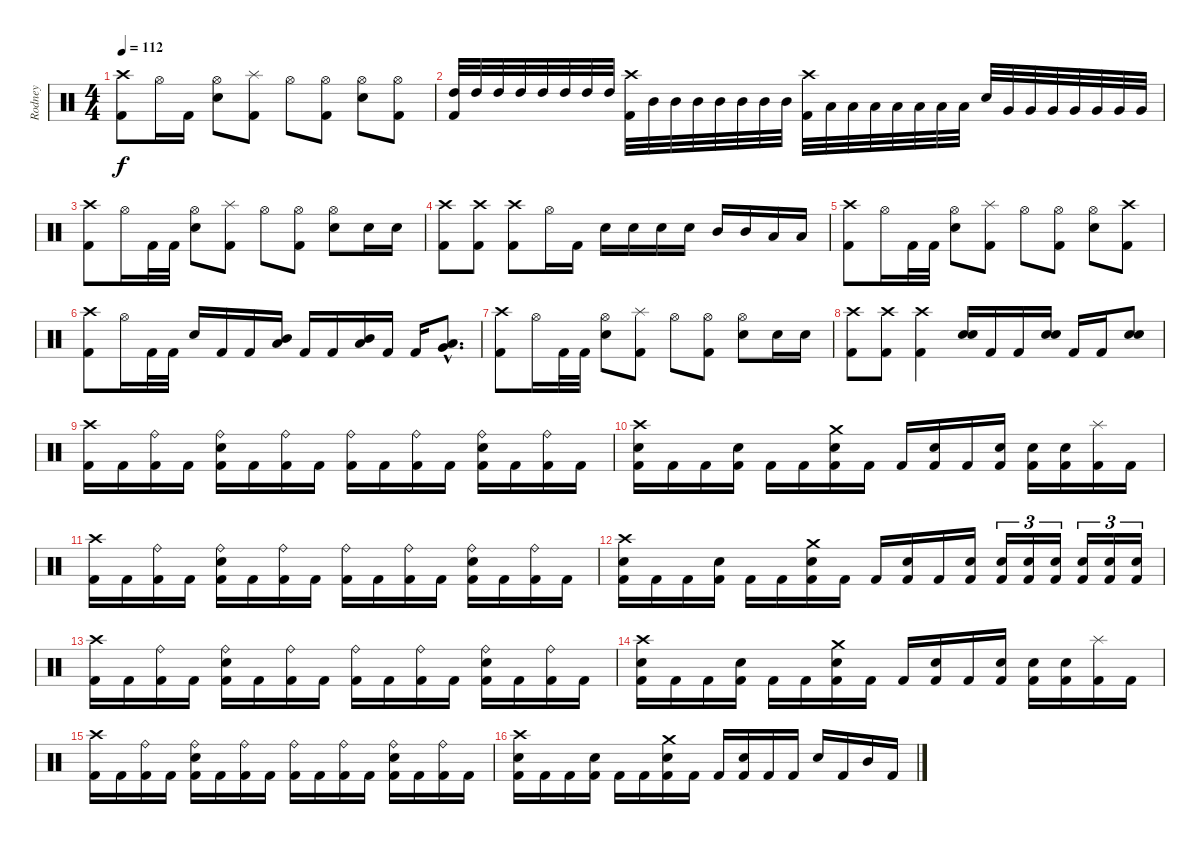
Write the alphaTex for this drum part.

\track ("Rodney" "Rodney") {instrument percussion}
\staff {score}
\articulation defaults
\ts (4 4)
\tempo 112
\clef neutral
\ks c
("Crash high (hit)" "Kick (hit) 2").8{dy f} "Hi-Hat (open)".16 "Kick (hit) 2".16 ("Hi-Hat (open)" "Snare (hit) 2").8 ("Splash (hit)" "Kick (hit) 2").8 "Hi-Hat (open)".8 ("Hi-Hat (open)" "Kick (hit) 2").8 ("Hi-Hat (open)" "Snare (hit) 2").8 ("Hi-Hat (open)" "Kick (hit) 2").8 |
("High Tom (hit)" "Kick (hit) 2").32 "High Tom (hit)".32 "High Tom (hit)".32 "High Tom (hit)".32 "High Tom (hit)".32 "High Tom (hit)".32 "High Tom (hit)".32 "High Tom (hit)".32 ("Crash high (hit)" "Kick (hit) 2").32 "Mid Tom (hit)".32 "Mid Tom (hit)".32 "Mid Tom (hit)".32 "Mid Tom (hit)".32 "Mid Tom (hit)".32 "Mid Tom (hit)".32 "Mid Tom (hit)".32 ("Crash high (hit)" "Kick (hit) 2").32 "Low Tom (hit)".32 "Low Tom (hit)".32 "Low Tom (hit)".32 "Low Tom (hit)".32 "Low Tom (hit)".32 "Low Tom (hit)".32 "Low Tom (hit)".32 "Snare (hit) 2".32 "Very Low Tom (hit)".32 "Very Low Tom (hit)".32 "Very Low Tom (hit)".32 "Very Low Tom (hit)".32 "Very Low Tom (hit)".32 "Very Low Tom (hit)".32 "Very Low Tom (hit)".32 |
("Crash high (hit)" "Kick (hit) 2").8 "Hi-Hat (open)".16 "Kick (hit) 2".32 "Kick (hit) 2".32 ("Hi-Hat (open)" "Snare (hit) 2").8 ("Splash (hit)" "Kick (hit) 2").8 "Hi-Hat (open)".8 ("Hi-Hat (open)" "Kick (hit) 2").8 ("Hi-Hat (open)" "Snare (hit) 2").8 "Snare (hit) 2".16 "Snare (hit) 2".16 |
("Crash high (hit)" "Kick (hit) 2").8 ("Crash high (hit)" "Kick (hit) 2").8 ("Crash high (hit)" "Kick (hit) 2").8 "Hi-Hat (open)".16 "Kick (hit) 2".16 "Snare (hit) 2".16 "Snare (hit) 2".16 "Snare (hit) 2".16 "Snare (hit) 2".16 "Mid Tom (hit)".16 "Mid Tom (hit)".16 "Low Tom (hit)".16 "Low Tom (hit)".16 |
("Crash high (hit)" "Kick (hit) 2").8 "Hi-Hat (open)".16 "Kick (hit) 2".32 "Kick (hit) 2".32 ("Hi-Hat (open)" "Snare (hit) 2").8 ("Splash (hit)" "Kick (hit) 2").8 "Hi-Hat (open)".8 ("Hi-Hat (open)" "Kick (hit) 2").8 ("Hi-Hat (open)" "Snare (hit) 2").8 ("Crash high (hit)" "Kick (hit) 2").8 |
("Crash high (hit)" "Kick (hit) 2").8 "Hi-Hat (open)".16 "Kick (hit) 2".32 "Kick (hit) 2".32 "Snare (hit) 2".16 "Kick (hit) 2".16 "Kick (hit) 2".16 ("Mid Tom (hit)" "Low Tom (hit)").16 "Kick (hit) 2".16 "Kick (hit) 2".16 ("Mid Tom (hit)" "Low Tom (hit)").16 "Kick (hit) 2".16 "Kick (hit) 2".16 ("Low Tom (hit)"{hac} "Very Low Tom (hit)"{hac}).8{d} |
("Crash high (hit)" "Kick (hit) 2").8 "Hi-Hat (open)".16 "Kick (hit) 2".32 "Kick (hit) 2".32 ("Hi-Hat (open)" "Snare (hit) 2").8 ("Splash (hit)" "Kick (hit) 2").8 "Hi-Hat (open)".8 ("Hi-Hat (open)" "Kick (hit) 2").8 ("Hi-Hat (open)" "Snare (hit) 2").8 "Snare (hit) 2".16 "Snare (hit) 2".16 |
("Crash high (hit)" "Kick (hit) 2").8 ("Crash high (hit)" "Kick (hit) 2").8 ("Crash high (hit)" "Kick (hit) 2").4 ("Snare (hit) 2" "Snare (hit) 2").16 "Kick (hit) 2".16 "Kick (hit) 2".16 ("Snare (hit) 2" "Snare (hit) 2").16 "Kick (hit) 2".16 "Kick (hit) 2".16 ("Snare (hit) 2" "Snare (hit) 2").8 |
("Crash high (hit)" "Kick (hit) 2").16 "Kick (hit) 2".16 ("Ride (bell)" "Kick (hit) 2").16 "Kick (hit) 2".16 ("Ride (bell)" "Snare (hit) 2" "Kick (hit) 2").16 "Kick (hit) 2".16 ("Ride (bell)" "Kick (hit) 2").16 "Kick (hit) 2".16 ("Ride (bell)" "Kick (hit) 2").16 "Kick (hit) 2".16 ("Ride (bell)" "Kick (hit) 2").16 "Kick (hit) 2".16 ("Ride (bell)" "Snare (hit) 2" "Kick (hit) 2").16 "Kick (hit) 2".16 ("Ride (bell)" "Kick (hit) 2").16 "Kick (hit) 2".16 |
("Crash high (hit)" "Snare (hit) 2" "Kick (hit) 2").16 "Kick (hit) 2".16 "Kick (hit) 2".16 ("Snare (hit) 2" "Kick (hit) 2").16 "Kick (hit) 2".16 "Kick (hit) 2".16 ("Crash medium (hit)" "Snare (hit) 2" "Kick (hit) 2").16 "Kick (hit) 2".16 "Kick (hit) 2".16 ("Snare (hit) 2" "Kick (hit) 2").16 "Kick (hit) 2".16 ("Snare (hit) 2" "Kick (hit) 2").16 ("Snare (hit) 2" "Kick (hit) 2").16 ("Snare (hit) 2" "Kick (hit) 2").16 ("Splash (hit)" "Kick (hit) 2").16 "Kick (hit) 2".16 |
("Crash high (hit)" "Kick (hit) 2").16 "Kick (hit) 2".16 ("Ride (bell)" "Kick (hit) 2").16 "Kick (hit) 2".16 ("Ride (bell)" "Snare (hit) 2" "Kick (hit) 2").16 "Kick (hit) 2".16 ("Ride (bell)" "Kick (hit) 2").16 "Kick (hit) 2".16 ("Ride (bell)" "Kick (hit) 2").16 "Kick (hit) 2".16 ("Ride (bell)" "Kick (hit) 2").16 "Kick (hit) 2".16 ("Ride (bell)" "Snare (hit) 2" "Kick (hit) 2").16 "Kick (hit) 2".16 ("Ride (bell)" "Kick (hit) 2").16 "Kick (hit) 2".16 |
("Crash high (hit)" "Snare (hit) 2" "Kick (hit) 2").16 "Kick (hit) 2".16 "Kick (hit) 2".16 ("Snare (hit) 2" "Kick (hit) 2").16 "Kick (hit) 2".16 "Kick (hit) 2".16 ("Crash medium (hit)" "Snare (hit) 2" "Kick (hit) 2").16 "Kick (hit) 2".16 "Kick (hit) 2".16 ("Snare (hit) 2" "Kick (hit) 2").16 "Kick (hit) 2".16 ("Snare (hit) 2" "Kick (hit) 2").16 ("Snare (hit) 2" "Kick (hit) 2").16{tu (3 2)} ("Snare (hit) 2" "Kick (hit) 2").16{tu (3 2)} ("Snare (hit) 2" "Kick (hit) 2").16{tu (3 2)} ("Snare (hit) 2" "Kick (hit) 2").16{tu (3 2)} ("Snare (hit) 2" "Kick (hit) 2").16{tu (3 2)} ("Snare (hit) 2" "Kick (hit) 2").16{tu (3 2)} |
("Crash high (hit)" "Kick (hit) 2").16 "Kick (hit) 2".16 ("Ride (bell)" "Kick (hit) 2").16 "Kick (hit) 2".16 ("Ride (bell)" "Snare (hit) 2" "Kick (hit) 2").16 "Kick (hit) 2".16 ("Ride (bell)" "Kick (hit) 2").16 "Kick (hit) 2".16 ("Ride (bell)" "Kick (hit) 2").16 "Kick (hit) 2".16 ("Ride (bell)" "Kick (hit) 2").16 "Kick (hit) 2".16 ("Ride (bell)" "Snare (hit) 2" "Kick (hit) 2").16 "Kick (hit) 2".16 ("Ride (bell)" "Kick (hit) 2").16 "Kick (hit) 2".16 |
("Crash high (hit)" "Snare (hit) 2" "Kick (hit) 2").16 "Kick (hit) 2".16 "Kick (hit) 2".16 ("Snare (hit) 2" "Kick (hit) 2").16 "Kick (hit) 2".16 "Kick (hit) 2".16 ("Crash medium (hit)" "Snare (hit) 2" "Kick (hit) 2").16 "Kick (hit) 2".16 "Kick (hit) 2".16 ("Snare (hit) 2" "Kick (hit) 2").16 "Kick (hit) 2".16 ("Snare (hit) 2" "Kick (hit) 2").16 ("Snare (hit) 2" "Kick (hit) 2").16 ("Snare (hit) 2" "Kick (hit) 2").16 ("Splash (hit)" "Kick (hit) 2").16 "Kick (hit) 2".16 |
("Crash high (hit)" "Kick (hit) 2").16 "Kick (hit) 2".16 ("Ride (bell)" "Kick (hit) 2").16 "Kick (hit) 2".16 ("Ride (bell)" "Snare (hit) 2" "Kick (hit) 2").16 "Kick (hit) 2".16 ("Ride (bell)" "Kick (hit) 2").16 "Kick (hit) 2".16 ("Ride (bell)" "Kick (hit) 2").16 "Kick (hit) 2".16 ("Ride (bell)" "Kick (hit) 2").16 "Kick (hit) 2".16 ("Ride (bell)" "Snare (hit) 2" "Kick (hit) 2").16 "Kick (hit) 2".16 ("Ride (bell)" "Kick (hit) 2").16 "Kick (hit) 2".16 |
("Crash high (hit)" "Snare (hit) 2" "Kick (hit) 2").16 "Kick (hit) 2".16 "Kick (hit) 2".16 ("Snare (hit) 2" "Kick (hit) 2").16 "Kick (hit) 2".16 "Kick (hit) 2".16 ("Crash medium (hit)" "Snare (hit) 2" "Kick (hit) 2").16 "Kick (hit) 2".16 "Kick (hit) 2".16 ("Snare (hit) 2" "Kick (hit) 2").16 "Kick (hit) 2".16 "Kick (hit) 2".16 "Snare (hit) 2".16 "Kick (hit) 2".16 "Mid Tom (hit)".16 "Kick (hit) 2".16
